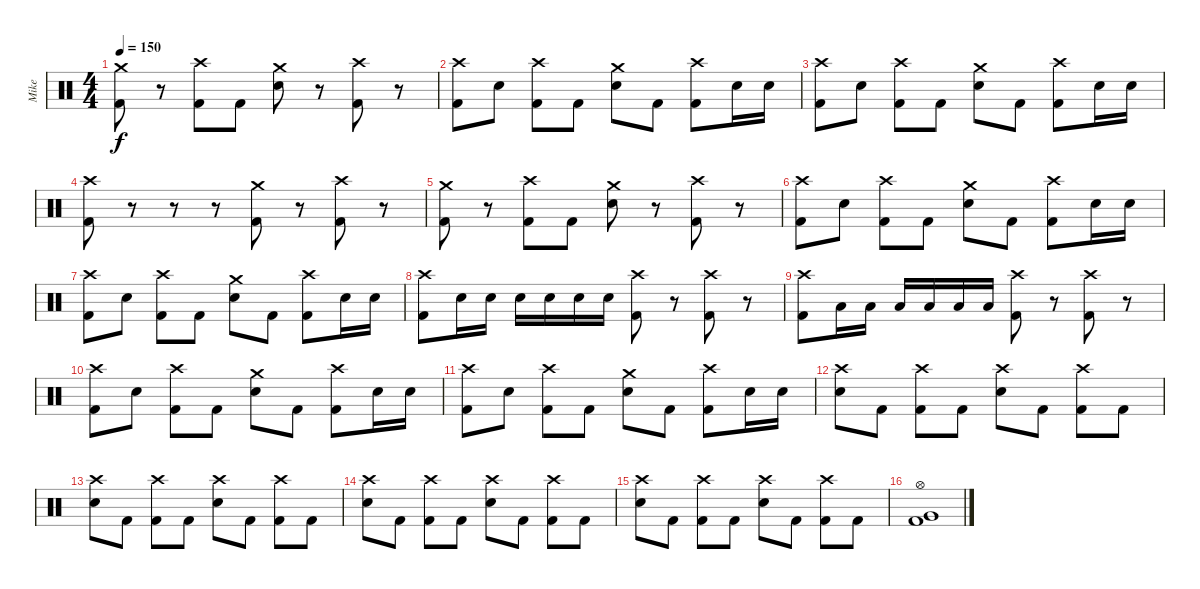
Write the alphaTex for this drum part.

\track ("Mike" "Mike") {instrument percussion}
\staff {score}
\articulation defaults
\ts (4 4)
\tempo 150
\clef neutral
\ks c
("Crash medium (hit)" "Kick (hit) 2").8{dy f} r.8 ("Crash high (hit)" "Kick (hit) 2").8 "Kick (hit) 2".8 ("Crash medium (hit)" "Electric Snare (hit)").8 r.8 ("Crash high (hit)" "Kick (hit) 2").8 r.8 |
("Crash high (hit)" "Kick (hit) 2").8 "Electric Snare (hit)".8 ("Crash high (hit)" "Kick (hit) 2").8 "Kick (hit) 2".8 ("Crash medium (hit)" "Electric Snare (hit)").8 "Kick (hit) 2".8 ("Crash high (hit)" "Kick (hit) 2").8 "Electric Snare (hit)".16 "Electric Snare (hit)".16 |
("Crash high (hit)" "Kick (hit) 2").8 "Electric Snare (hit)".8 ("Crash high (hit)" "Kick (hit) 2").8 "Kick (hit) 2".8 ("Crash medium (hit)" "Electric Snare (hit)").8 "Kick (hit) 2".8 ("Crash high (hit)" "Kick (hit) 2").8 "Electric Snare (hit)".16 "Electric Snare (hit)".16 |
("Crash high (hit)" "Kick (hit) 2").8 r.8 r.8 r.8 ("Crash medium (hit)" "Kick (hit) 2").8 r.8 ("Crash high (hit)" "Kick (hit) 2").8 r.8 |
("Crash medium (hit)" "Kick (hit) 2").8 r.8 ("Crash high (hit)" "Kick (hit) 2").8 "Kick (hit) 2".8 ("Crash medium (hit)" "Electric Snare (hit)").8 r.8 ("Crash high (hit)" "Kick (hit) 2").8 r.8 |
("Crash high (hit)" "Kick (hit) 2").8 "Electric Snare (hit)".8 ("Crash high (hit)" "Kick (hit) 2").8 "Kick (hit) 2".8 ("Crash medium (hit)" "Electric Snare (hit)").8 "Kick (hit) 2".8 ("Crash high (hit)" "Kick (hit) 2").8 "Electric Snare (hit)".16 "Electric Snare (hit)".16 |
("Crash high (hit)" "Kick (hit) 2").8 "Electric Snare (hit)".8 ("Crash high (hit)" "Kick (hit) 2").8 "Kick (hit) 2".8 ("Crash medium (hit)" "Electric Snare (hit)").8 "Kick (hit) 2".8 ("Crash high (hit)" "Kick (hit) 2").8 "Electric Snare (hit)".16 "Electric Snare (hit)".16 |
("Crash high (hit)" "Kick (hit) 2").8 "Electric Snare (hit)".16 "Electric Snare (hit)".16 "Electric Snare (hit)".16 "Electric Snare (hit)".16 "Electric Snare (hit)".16 "Electric Snare (hit)".16 ("Crash high (hit)" "Kick (hit) 2").8 r.8 ("Crash high (hit)" "Kick (hit) 2").8 r.8 |
("Crash high (hit)" "Kick (hit) 2").8 "Low Tom (hit)".16 "Low Tom (hit)".16 "Low Tom (hit)".16 "Low Tom (hit)".16 "Low Tom (hit)".16 "Low Tom (hit)".16 ("Crash high (hit)" "Kick (hit) 2").8 r.8 ("Crash high (hit)" "Kick (hit) 2").8 r.8 |
("Crash high (hit)" "Kick (hit) 2").8 "Electric Snare (hit)".8 ("Crash high (hit)" "Kick (hit) 2").8 "Kick (hit) 2".8 ("Crash medium (hit)" "Electric Snare (hit)").8 "Kick (hit) 2".8 ("Crash high (hit)" "Kick (hit) 2").8 "Electric Snare (hit)".16 "Electric Snare (hit)".16 |
("Crash high (hit)" "Kick (hit) 2").8 "Electric Snare (hit)".8 ("Crash high (hit)" "Kick (hit) 2").8 "Kick (hit) 2".8 ("Crash medium (hit)" "Electric Snare (hit)").8 "Kick (hit) 2".8 ("Crash high (hit)" "Kick (hit) 2").8 "Electric Snare (hit)".16 "Electric Snare (hit)".16 |
("Crash high (hit)" "Electric Snare (hit)").8 "Kick (hit) 2".8 ("Crash high (hit)" "Kick (hit) 2").8 "Kick (hit) 2".8 ("Crash high (hit)" "Electric Snare (hit)").8 "Kick (hit) 2".8 ("Crash high (hit)" "Kick (hit) 2").8 "Kick (hit) 2".8 |
("Crash high (hit)" "Electric Snare (hit)").8 "Kick (hit) 2".8 ("Crash high (hit)" "Kick (hit) 2").8 "Kick (hit) 2".8 ("Crash high (hit)" "Electric Snare (hit)").8 "Kick (hit) 2".8 ("Crash high (hit)" "Kick (hit) 2").8 "Kick (hit) 2".8 |
("Crash high (hit)" "Electric Snare (hit)").8 "Kick (hit) 2".8 ("Crash high (hit)" "Kick (hit) 2").8 "Kick (hit) 2".8 ("Crash high (hit)" "Electric Snare (hit)").8 "Kick (hit) 2".8 ("Crash high (hit)" "Kick (hit) 2").8 "Kick (hit) 2".8 |
("Crash high (hit)" "Electric Snare (hit)").8 "Kick (hit) 2".8 ("Crash high (hit)" "Kick (hit) 2").8 "Kick (hit) 2".8 ("Crash high (hit)" "Electric Snare (hit)").8 "Kick (hit) 2".8 ("Crash high (hit)" "Kick (hit) 2").8 "Kick (hit) 2".8 |
("Hi-Hat (open)" "Very Low Tom (hit)" "Kick (hit) 2").1
